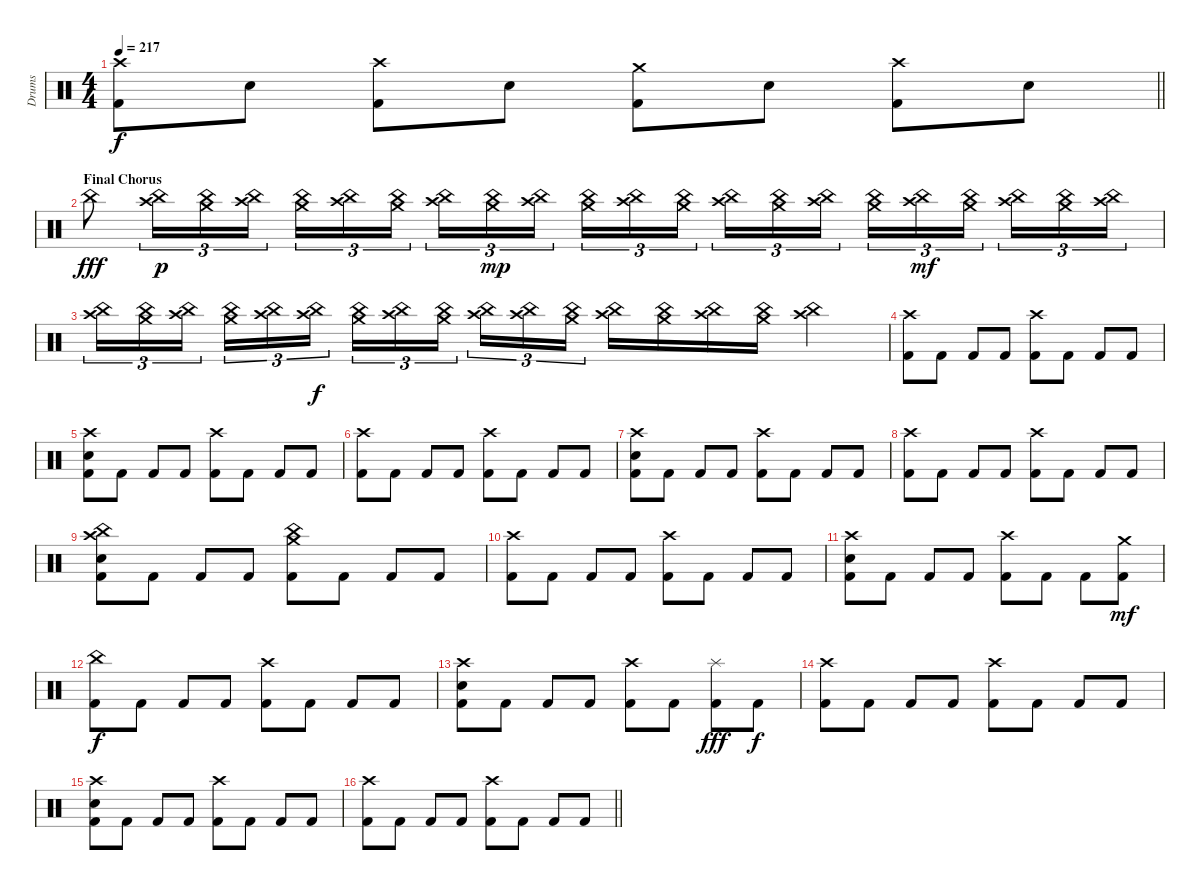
\track ("Drums" "Drums") {instrument percussion}
\staff {score}
\articulation defaults
\ts (4 4)
\tempo 217
\clef neutral
\barLineRight lightlight
\ks c
("Crash high (hit)" "Kick (hit) 2").8{dy f} "Electric Snare (hit)".8 ("Crash high (hit)" "Kick (hit) 2").8 "Electric Snare (hit)".8 ("Crash medium (hit)" "Kick (hit) 2").8 "Electric Snare (hit)".8 ("Crash high (hit)" "Kick (hit) 2").8 "Electric Snare (hit)".8 |
\section ("" "Final Chorus")
"China (hit)".8{dy fff} ("Crash high (hit)" "China (hit)").16{tu (3 2) dy p} ("Crash medium (hit)" "China (hit)").16{tu (3 2)} ("Crash high (hit)" "China (hit)").16{tu (3 2)} ("Crash medium (hit)" "China (hit)").16{tu (3 2)} ("Crash high (hit)" "China (hit)").16{tu (3 2)} ("Crash medium (hit)" "China (hit)").16{tu (3 2) beam splitsecondary} ("Crash high (hit)" "China (hit)").16{tu (3 2)} ("Crash medium (hit)" "China (hit)").16{tu (3 2) dy mp} ("Crash high (hit)" "China (hit)").16{tu (3 2)} ("Crash medium (hit)" "China (hit)").16{tu (3 2)} ("Crash high (hit)" "China (hit)").16{tu (3 2)} ("Crash medium (hit)" "China (hit)").16{tu (3 2) beam splitsecondary} ("Crash high (hit)" "China (hit)").16{tu (3 2)} ("Crash medium (hit)" "China (hit)").16{tu (3 2)} ("Crash high (hit)" "China (hit)").16{tu (3 2)} ("Crash medium (hit)" "China (hit)").16{tu (3 2)} ("Crash high (hit)" "China (hit)").16{tu (3 2) dy mf} ("Crash medium (hit)" "China (hit)").16{tu (3 2) beam splitsecondary} ("Crash high (hit)" "China (hit)").16{tu (3 2)} ("Crash medium (hit)" "China (hit)").16{tu (3 2)} ("Crash high (hit)" "China (hit)").16{tu (3 2)} |
("Crash high (hit)" "China (hit)").16{tu (3 2)} ("Crash medium (hit)" "China (hit)").16{tu (3 2)} ("Crash high (hit)" "China (hit)").16{tu (3 2) beam splitsecondary} ("Crash medium (hit)" "China (hit)").16{tu (3 2)} ("Crash high (hit)" "China (hit)").16{tu (3 2)} ("Crash high (hit)" "China (hit)").16{tu (3 2) dy f} ("Crash medium (hit)" "China (hit)").16{tu (3 2)} ("Crash high (hit)" "China (hit)").16{tu (3 2)} ("Crash medium (hit)" "China (hit)").16{tu (3 2) beam splitsecondary} ("Crash high (hit)" "China (hit)").16{tu (3 2)} ("Crash high (hit)" "China (hit)").16{tu (3 2)} ("Crash medium (hit)" "China (hit)").16{tu (3 2)} ("Crash high (hit)" "China (hit)").16 ("Crash medium (hit)" "China (hit)").16 ("Crash high (hit)" "China (hit)").16 ("Crash medium (hit)" "China (hit)").16 ("Crash high (hit)" "China (hit)").4 |
("Crash high (hit)" "Kick (hit) 2").8 "Kick (hit) 2".8 "Kick (hit) 2".8 "Kick (hit) 2".8 ("Crash high (hit)" "Kick (hit) 2").8 "Kick (hit) 2".8 "Kick (hit) 2".8 "Kick (hit) 2".8 |
("Crash high (hit)" "Electric Snare (hit)" "Kick (hit) 2").8 "Kick (hit) 2".8 "Kick (hit) 2".8 "Kick (hit) 2".8 ("Crash high (hit)" "Kick (hit) 2").8 "Kick (hit) 2".8 "Kick (hit) 2".8 "Kick (hit) 2".8 |
("Crash high (hit)" "Kick (hit) 2").8 "Kick (hit) 2".8 "Kick (hit) 2".8 "Kick (hit) 2".8 ("Crash high (hit)" "Kick (hit) 2").8 "Kick (hit) 2".8 "Kick (hit) 2".8 "Kick (hit) 2".8 |
("Crash high (hit)" "Electric Snare (hit)" "Kick (hit) 2").8 "Kick (hit) 2".8 "Kick (hit) 2".8 "Kick (hit) 2".8 ("Crash high (hit)" "Kick (hit) 2").8 "Kick (hit) 2".8 "Kick (hit) 2".8 "Kick (hit) 2".8 |
("Crash high (hit)" "Kick (hit) 2").8 "Kick (hit) 2".8 "Kick (hit) 2".8 "Kick (hit) 2".8 ("Crash high (hit)" "Kick (hit) 2").8 "Kick (hit) 2".8 "Kick (hit) 2".8 "Kick (hit) 2".8 |
("China (hit)" "Crash high (hit)" "Electric Snare (hit)" "Kick (hit) 2").8 "Kick (hit) 2".8 "Kick (hit) 2".8 "Kick (hit) 2".8 ("Crash medium (hit)" "China (hit)" "Kick (hit) 2").8 "Kick (hit) 2".8 "Kick (hit) 2".8 "Kick (hit) 2".8 |
("Crash high (hit)" "Kick (hit) 2").8 "Kick (hit) 2".8 "Kick (hit) 2".8 "Kick (hit) 2".8 ("Crash high (hit)" "Kick (hit) 2").8 "Kick (hit) 2".8 "Kick (hit) 2".8 "Kick (hit) 2".8 |
("Crash high (hit)" "Electric Snare (hit)" "Kick (hit) 2").8 "Kick (hit) 2".8 "Kick (hit) 2".8 "Kick (hit) 2".8 ("Crash high (hit)" "Kick (hit) 2").8 "Kick (hit) 2".8 "Kick (hit) 2".8 ("Crash medium (hit)" "Kick (hit) 2").8{dy mf} |
("China (hit)" "Kick (hit) 2").8{dy f} "Kick (hit) 2".8 "Kick (hit) 2".8 "Kick (hit) 2".8 ("Crash high (hit)" "Kick (hit) 2").8 "Kick (hit) 2".8 "Kick (hit) 2".8 "Kick (hit) 2".8 |
("Crash high (hit)" "Electric Snare (hit)" "Kick (hit) 2").8 "Kick (hit) 2".8 "Kick (hit) 2".8 "Kick (hit) 2".8 ("Crash high (hit)" "Kick (hit) 2").8 "Kick (hit) 2".8 ("Splash (hit)" "Kick (hit) 2").8{dy fff} "Kick (hit) 2".8{dy f} |
("Crash high (hit)" "Kick (hit) 2").8 "Kick (hit) 2".8 "Kick (hit) 2".8 "Kick (hit) 2".8 ("Crash high (hit)" "Kick (hit) 2").8 "Kick (hit) 2".8 "Kick (hit) 2".8 "Kick (hit) 2".8 |
("Crash high (hit)" "Electric Snare (hit)" "Kick (hit) 2").8 "Kick (hit) 2".8 "Kick (hit) 2".8 "Kick (hit) 2".8 ("Crash high (hit)" "Kick (hit) 2").8 "Kick (hit) 2".8 "Kick (hit) 2".8 "Kick (hit) 2".8 |
\barLineRight lightlight
("Crash high (hit)" "Kick (hit) 2").8 "Kick (hit) 2".8 "Kick (hit) 2".8 "Kick (hit) 2".8 ("Crash high (hit)" "Kick (hit) 2").8 "Kick (hit) 2".8 "Kick (hit) 2".8 "Kick (hit) 2".8
